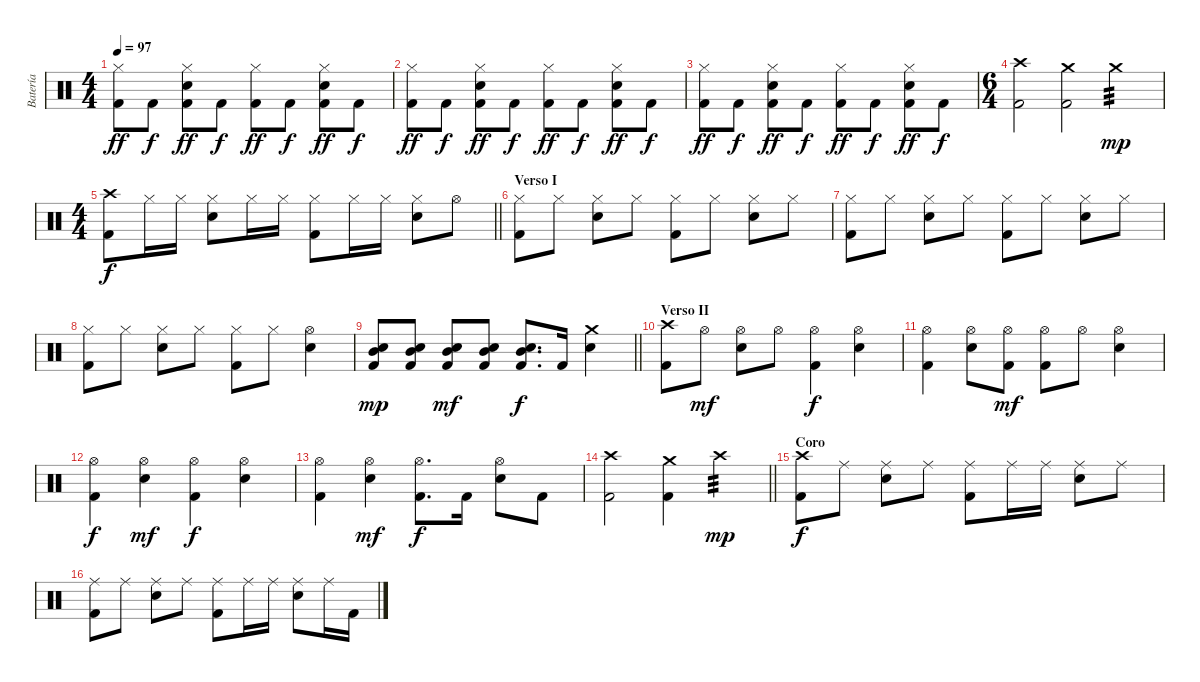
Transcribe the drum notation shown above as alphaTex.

\track ("Batería" "Batería") {instrument percussion}
\staff {score}
\articulation defaults
\ts (4 4)
\tempo 97
\clef neutral
\ks c
("Hi-Hat (closed)" "Kick (hit) 2").8{dy ff} "Kick (hit) 2".8{dy f} ("Hi-Hat (closed)" "Snare (hit) 2" "Kick (hit) 2").8{dy ff} "Kick (hit) 2".8{dy f} ("Hi-Hat (closed)" "Kick (hit) 2").8{dy ff} "Kick (hit) 2".8{dy f} ("Hi-Hat (closed)" "Snare (hit) 2" "Kick (hit) 2").8{dy ff} "Kick (hit) 2".8{dy f} |
("Hi-Hat (closed)" "Kick (hit) 2").8{dy ff} "Kick (hit) 2".8{dy f} ("Hi-Hat (closed)" "Snare (hit) 2" "Kick (hit) 2").8{dy ff} "Kick (hit) 2".8{dy f} ("Hi-Hat (closed)" "Kick (hit) 2").8{dy ff} "Kick (hit) 2".8{dy f} ("Hi-Hat (closed)" "Snare (hit) 2" "Kick (hit) 2").8{dy ff} "Kick (hit) 2".8{dy f} |
("Hi-Hat (closed)" "Kick (hit) 2").8{dy ff} "Kick (hit) 2".8{dy f} ("Hi-Hat (closed)" "Snare (hit) 2" "Kick (hit) 2").8{dy ff} "Kick (hit) 2".8{dy f} ("Hi-Hat (closed)" "Kick (hit) 2").8{dy ff} "Kick (hit) 2".8{dy f} ("Hi-Hat (closed)" "Snare (hit) 2" "Kick (hit) 2").8{dy ff} "Kick (hit) 2".8{dy f} |
\ts (6 4)
("Crash high (hit)" "Kick (hit) 2").2 ("Crash medium (hit)" "Kick (hit) 2").2 "Crash medium (hit)".2{tp 3 dy mp} |
\ts (4 4)
\barLineRight lightlight
("Crash high (hit)" "Kick (hit) 2").8{dy f} "Hi-Hat (closed)".16 "Hi-Hat (closed)".16 ("Hi-Hat (closed)" "Snare (hit) 2").8 "Hi-Hat (closed)".16 "Hi-Hat (closed)".16 ("Hi-Hat (closed)" "Kick (hit) 2").8 "Hi-Hat (closed)".16 "Hi-Hat (closed)".16 ("Hi-Hat (closed)" "Snare (hit) 2").8 "Hi-Hat (open)".8 |
\section ("" "Verso I")
("Hi-Hat (closed)" "Kick (hit) 2").8 "Hi-Hat (closed)".8 ("Hi-Hat (closed)" "Snare (hit) 2").8 "Hi-Hat (closed)".8 ("Hi-Hat (closed)" "Kick (hit) 2").8 "Hi-Hat (closed)".8 ("Hi-Hat (closed)" "Snare (hit) 2").8 "Hi-Hat (closed)".8 |
("Hi-Hat (closed)" "Kick (hit) 2").8 "Hi-Hat (closed)".8 ("Hi-Hat (closed)" "Snare (hit) 2").8 "Hi-Hat (closed)".8 ("Hi-Hat (closed)" "Kick (hit) 2").8 "Hi-Hat (closed)".8 ("Hi-Hat (closed)" "Snare (hit) 2").8 "Hi-Hat (closed)".8 |
("Hi-Hat (closed)" "Kick (hit) 2").8 "Hi-Hat (closed)".8 ("Hi-Hat (closed)" "Snare (hit) 2").8 "Hi-Hat (closed)".8 ("Hi-Hat (closed)" "Kick (hit) 2").8 "Hi-Hat (closed)".8 ("Hi-Hat (open)" "Snare (hit) 2").4 |
\barLineRight lightlight
("Snare (hit) 2" "Mid Tom (hit)" "Kick (hit) 2").8{dy mp} ("Snare (hit) 2" "Mid Tom (hit)" "Kick (hit) 2").8 ("Snare (hit) 2" "Mid Tom (hit)" "Kick (hit) 2").8{dy mf} ("Snare (hit) 2" "Mid Tom (hit)" "Kick (hit) 2").8 ("Snare (hit) 2" "Mid Tom (hit)" "Kick (hit) 2").8{d dy f} "Kick (hit) 2".16 ("Snare (hit) 2" "Crash medium (hit)").4 |
\section ("" "Verso II")
("Crash high (hit)" "Kick (hit) 2").8 "Hi-Hat (open)".8{dy mf} ("Hi-Hat (open)" "Snare (hit) 2").8 "Hi-Hat (open)".8 ("Hi-Hat (open)" "Kick (hit) 2").4{dy f} ("Hi-Hat (open)" "Snare (hit) 2").4 |
("Hi-Hat (open)" "Kick (hit) 2").4 ("Hi-Hat (open)" "Snare (hit) 2").8 ("Hi-Hat (open)" "Kick (hit) 2").8{dy mf} ("Hi-Hat (open)" "Kick (hit) 2").8 "Hi-Hat (open)".8 ("Hi-Hat (open)" "Snare (hit) 2").4 |
("Hi-Hat (open)" "Kick (hit) 2").4{dy f} ("Hi-Hat (open)" "Snare (hit) 2").4{dy mf} ("Hi-Hat (open)" "Kick (hit) 2").4{dy f} ("Hi-Hat (open)" "Snare (hit) 2").4 |
("Hi-Hat (open)" "Kick (hit) 2").4 ("Hi-Hat (open)" "Snare (hit) 2").4{dy mf} ("Hi-Hat (open)" "Kick (hit) 2").8{d dy f} "Kick (hit) 2".16 ("Hi-Hat (open)" "Snare (hit) 2").8 "Kick (hit) 2".8 |
\barLineRight lightlight
("Crash high (hit)" "Kick (hit) 2").2 ("Kick (hit) 2" "Crash medium (hit)").4 "Crash high (hit)".4{tp 3 dy mp} |
\section ("" "Coro")
("Crash high (hit)" "Kick (hit) 2").8{dy f} "Ride (middle)".8 ("Ride (middle)" "Snare (hit) 2").8 "Ride (middle)".8 ("Ride (middle)" "Kick (hit) 2").8 "Ride (middle)".16 "Ride (middle)".16 ("Ride (middle)" "Snare (hit) 2").8 "Ride (middle)".8 |
("Ride (middle)" "Kick (hit) 2").8 "Ride (middle)".8 ("Ride (middle)" "Snare (hit) 2").8 "Ride (middle)".8 ("Ride (middle)" "Kick (hit) 2").8 "Ride (middle)".16 "Ride (middle)".16 ("Ride (middle)" "Snare (hit) 2").8 "Ride (middle)".16 "Kick (hit) 2".16
